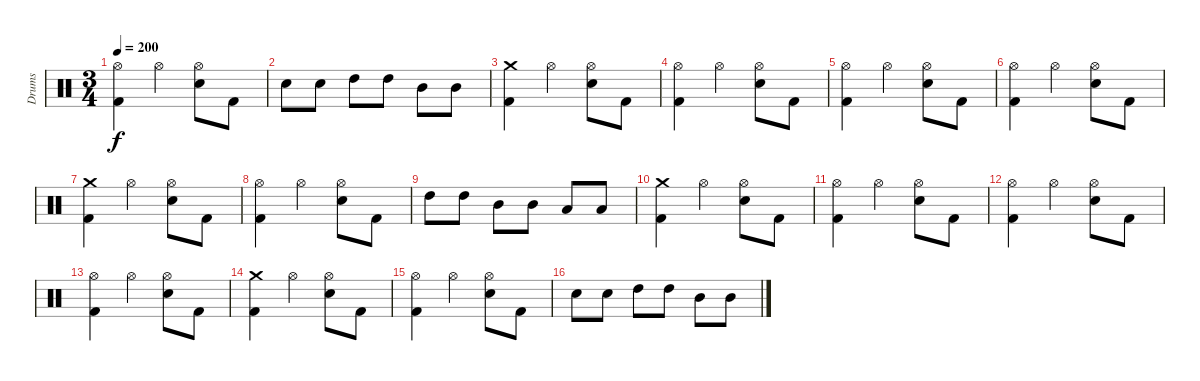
\track ("Drums" "Drums") {instrument percussion}
\staff {score}
\articulation defaults
\ts (3 4)
\tempo 200
\clef neutral
\ks c
("Hi-Hat (open)" "Kick (hit) 2").4{dy f} "Hi-Hat (open)".4 ("Hi-Hat (open)" "Electric Snare (hit)").8 "Kick (hit) 2".8 |
"Electric Snare (hit)".8 "Electric Snare (hit)".8 "High Tom (hit)".8 "High Tom (hit)".8 "Mid Tom (hit)".8 "Mid Tom (hit)".8 |
("Crash medium (hit)" "Kick (hit) 2").4 "Hi-Hat (open)".4 ("Hi-Hat (open)" "Electric Snare (hit)").8 "Kick (hit) 2".8 |
("Hi-Hat (open)" "Kick (hit) 2").4 "Hi-Hat (open)".4 ("Hi-Hat (open)" "Electric Snare (hit)").8 "Kick (hit) 2".8 |
("Hi-Hat (open)" "Kick (hit) 2").4 "Hi-Hat (open)".4 ("Hi-Hat (open)" "Electric Snare (hit)").8 "Kick (hit) 2".8 |
("Hi-Hat (open)" "Kick (hit) 2").4 "Hi-Hat (open)".4 ("Hi-Hat (open)" "Electric Snare (hit)").8 "Kick (hit) 2".8 |
("Crash medium (hit)" "Kick (hit) 2").4 "Hi-Hat (open)".4 ("Hi-Hat (open)" "Electric Snare (hit)").8 "Kick (hit) 2".8 |
("Hi-Hat (open)" "Kick (hit) 2").4 "Hi-Hat (open)".4 ("Hi-Hat (open)" "Electric Snare (hit)").8 "Kick (hit) 2".8 |
"High Tom (hit)".8 "High Tom (hit)".8 "Mid Tom (hit)".8 "Mid Tom (hit)".8 "Low Tom (hit)".8 "Low Tom (hit)".8 |
("Crash medium (hit)" "Kick (hit) 2").4 "Hi-Hat (open)".4 ("Hi-Hat (open)" "Electric Snare (hit)").8 "Kick (hit) 2".8 |
("Hi-Hat (open)" "Kick (hit) 2").4 "Hi-Hat (open)".4 ("Hi-Hat (open)" "Electric Snare (hit)").8 "Kick (hit) 2".8 |
("Hi-Hat (open)" "Kick (hit) 2").4 "Hi-Hat (open)".4 ("Hi-Hat (open)" "Electric Snare (hit)").8 "Kick (hit) 2".8 |
("Hi-Hat (open)" "Kick (hit) 2").4 "Hi-Hat (open)".4 ("Hi-Hat (open)" "Electric Snare (hit)").8 "Kick (hit) 2".8 |
("Crash medium (hit)" "Kick (hit) 2").4 "Hi-Hat (open)".4 ("Hi-Hat (open)" "Electric Snare (hit)").8 "Kick (hit) 2".8 |
("Hi-Hat (open)" "Kick (hit) 2").4 "Hi-Hat (open)".4 ("Hi-Hat (open)" "Electric Snare (hit)").8 "Kick (hit) 2".8 |
"Electric Snare (hit)".8 "Electric Snare (hit)".8 "High Tom (hit)".8 "High Tom (hit)".8 "Mid Tom (hit)".8 "Mid Tom (hit)".8
